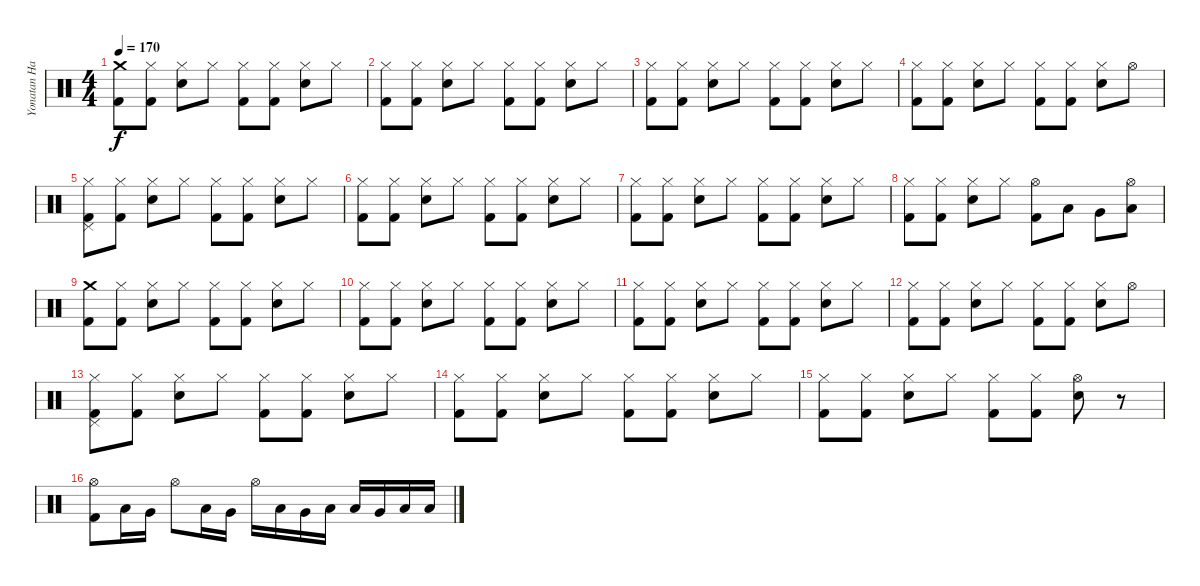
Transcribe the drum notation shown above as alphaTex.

\track ("Yonatan Harpak (drums)" "Yonatan Ha") {instrument percussion}
\staff {score}
\articulation defaults
\ts (4 4)
\tempo 170
\clef neutral
\ks c
("Crash medium (hit)" "Kick (hit) 2").8{dy f} ("Hi-Hat (closed)" "Kick (hit) 2").8 ("Hi-Hat (closed)" "Snare (hit) 2").8 "Hi-Hat (closed)".8 ("Hi-Hat (closed)" "Kick (hit) 2").8 ("Hi-Hat (closed)" "Kick (hit) 2").8 ("Hi-Hat (closed)" "Snare (hit) 2").8 "Hi-Hat (closed)".8 |
("Hi-Hat (closed)" "Kick (hit) 2").8 ("Hi-Hat (closed)" "Kick (hit) 2").8 ("Hi-Hat (closed)" "Snare (hit) 2").8 "Hi-Hat (closed)".8 ("Hi-Hat (closed)" "Kick (hit) 2").8 ("Hi-Hat (closed)" "Kick (hit) 2").8 ("Hi-Hat (closed)" "Snare (hit) 2").8 "Hi-Hat (closed)".8 |
("Hi-Hat (closed)" "Kick (hit) 2").8 ("Hi-Hat (closed)" "Kick (hit) 2").8 ("Hi-Hat (closed)" "Snare (hit) 2").8 "Hi-Hat (closed)".8 ("Hi-Hat (closed)" "Kick (hit) 2").8 ("Hi-Hat (closed)" "Kick (hit) 2").8 ("Hi-Hat (closed)" "Snare (hit) 2").8 "Hi-Hat (closed)".8 |
("Hi-Hat (closed)" "Kick (hit) 2").8 ("Hi-Hat (closed)" "Kick (hit) 2").8 ("Hi-Hat (closed)" "Snare (hit) 2").8 "Hi-Hat (closed)".8 ("Hi-Hat (closed)" "Kick (hit) 2").8 ("Hi-Hat (closed)" "Kick (hit) 2").8 ("Hi-Hat (closed)" "Snare (hit) 2").8 "Hi-Hat (open)".8 |
("Hi-Hat (closed)" "Pedal Hi-Hat (hit)" "Kick (hit) 2").8 ("Hi-Hat (closed)" "Kick (hit) 2").8 ("Hi-Hat (closed)" "Snare (hit) 2").8 "Hi-Hat (closed)".8 ("Hi-Hat (closed)" "Kick (hit) 2").8 ("Hi-Hat (closed)" "Kick (hit) 2").8 ("Hi-Hat (closed)" "Snare (hit) 2").8 "Hi-Hat (closed)".8 |
("Hi-Hat (closed)" "Kick (hit) 2").8 ("Hi-Hat (closed)" "Kick (hit) 2").8 ("Hi-Hat (closed)" "Snare (hit) 2").8 "Hi-Hat (closed)".8 ("Hi-Hat (closed)" "Kick (hit) 2").8 ("Hi-Hat (closed)" "Kick (hit) 2").8 ("Hi-Hat (closed)" "Snare (hit) 2").8 "Hi-Hat (closed)".8 |
("Hi-Hat (closed)" "Kick (hit) 2").8 ("Hi-Hat (closed)" "Kick (hit) 2").8 ("Hi-Hat (closed)" "Snare (hit) 2").8 "Hi-Hat (closed)".8 ("Hi-Hat (closed)" "Kick (hit) 2").8 ("Hi-Hat (closed)" "Kick (hit) 2").8 ("Hi-Hat (closed)" "Snare (hit) 2").8 "Hi-Hat (closed)".8 |
("Hi-Hat (closed)" "Kick (hit) 2").8 ("Hi-Hat (closed)" "Kick (hit) 2").8 ("Hi-Hat (closed)" "Snare (hit) 2").8 "Hi-Hat (closed)".8 ("Hi-Hat (open)" "Kick (hit) 2").8 "Low Tom (hit)".8 "Very Low Tom (hit)".8 ("Hi-Hat (open)" "Low Tom (hit)").8 |
("Crash medium (hit)" "Kick (hit) 2").8 ("Hi-Hat (closed)" "Kick (hit) 2").8 ("Hi-Hat (closed)" "Snare (hit) 2").8 "Hi-Hat (closed)".8 ("Hi-Hat (closed)" "Kick (hit) 2").8 ("Hi-Hat (closed)" "Kick (hit) 2").8 ("Hi-Hat (closed)" "Snare (hit) 2").8 "Hi-Hat (closed)".8 |
("Hi-Hat (closed)" "Kick (hit) 2").8 ("Hi-Hat (closed)" "Kick (hit) 2").8 ("Hi-Hat (closed)" "Snare (hit) 2").8 "Hi-Hat (closed)".8 ("Hi-Hat (closed)" "Kick (hit) 2").8 ("Hi-Hat (closed)" "Kick (hit) 2").8 ("Hi-Hat (closed)" "Snare (hit) 2").8 "Hi-Hat (closed)".8 |
("Hi-Hat (closed)" "Kick (hit) 2").8 ("Hi-Hat (closed)" "Kick (hit) 2").8 ("Hi-Hat (closed)" "Snare (hit) 2").8 "Hi-Hat (closed)".8 ("Hi-Hat (closed)" "Kick (hit) 2").8 ("Hi-Hat (closed)" "Kick (hit) 2").8 ("Hi-Hat (closed)" "Snare (hit) 2").8 "Hi-Hat (closed)".8 |
("Hi-Hat (closed)" "Kick (hit) 2").8 ("Hi-Hat (closed)" "Kick (hit) 2").8 ("Hi-Hat (closed)" "Snare (hit) 2").8 "Hi-Hat (closed)".8 ("Hi-Hat (closed)" "Kick (hit) 2").8 ("Hi-Hat (closed)" "Kick (hit) 2").8 ("Hi-Hat (closed)" "Snare (hit) 2").8 "Hi-Hat (open)".8 |
("Hi-Hat (closed)" "Pedal Hi-Hat (hit)" "Kick (hit) 2").8 ("Hi-Hat (closed)" "Kick (hit) 2").8 ("Hi-Hat (closed)" "Snare (hit) 2").8 "Hi-Hat (closed)".8 ("Hi-Hat (closed)" "Kick (hit) 2").8 ("Hi-Hat (closed)" "Kick (hit) 2").8 ("Hi-Hat (closed)" "Snare (hit) 2").8 "Hi-Hat (closed)".8 |
("Hi-Hat (closed)" "Kick (hit) 2").8 ("Hi-Hat (closed)" "Kick (hit) 2").8 ("Hi-Hat (closed)" "Snare (hit) 2").8 "Hi-Hat (closed)".8 ("Hi-Hat (closed)" "Kick (hit) 2").8 ("Hi-Hat (closed)" "Kick (hit) 2").8 ("Hi-Hat (closed)" "Snare (hit) 2").8 "Hi-Hat (closed)".8 |
("Hi-Hat (closed)" "Kick (hit) 2").8 ("Hi-Hat (closed)" "Kick (hit) 2").8 ("Hi-Hat (closed)" "Snare (hit) 2").8 "Hi-Hat (closed)".8 ("Hi-Hat (closed)" "Kick (hit) 2").8 ("Hi-Hat (closed)" "Kick (hit) 2").8 ("Hi-Hat (open)" "Snare (hit) 2").8 r.8 |
("Hi-Hat (open)" "Kick (hit) 2").8 "Low Tom (hit)".16 "Very Low Tom (hit)".16 "Hi-Hat (open)".8 "Low Tom (hit)".16 "Very Low Tom (hit)".16 "Hi-Hat (open)".16 "Low Tom (hit)".16 "Very Low Tom (hit)".16 "Low Floor Tom (hit)".16 "Low Tom (hit)".16 "Very Low Tom (hit)".16 "Low Floor Tom (hit)".16 "Low Tom (hit)".16
